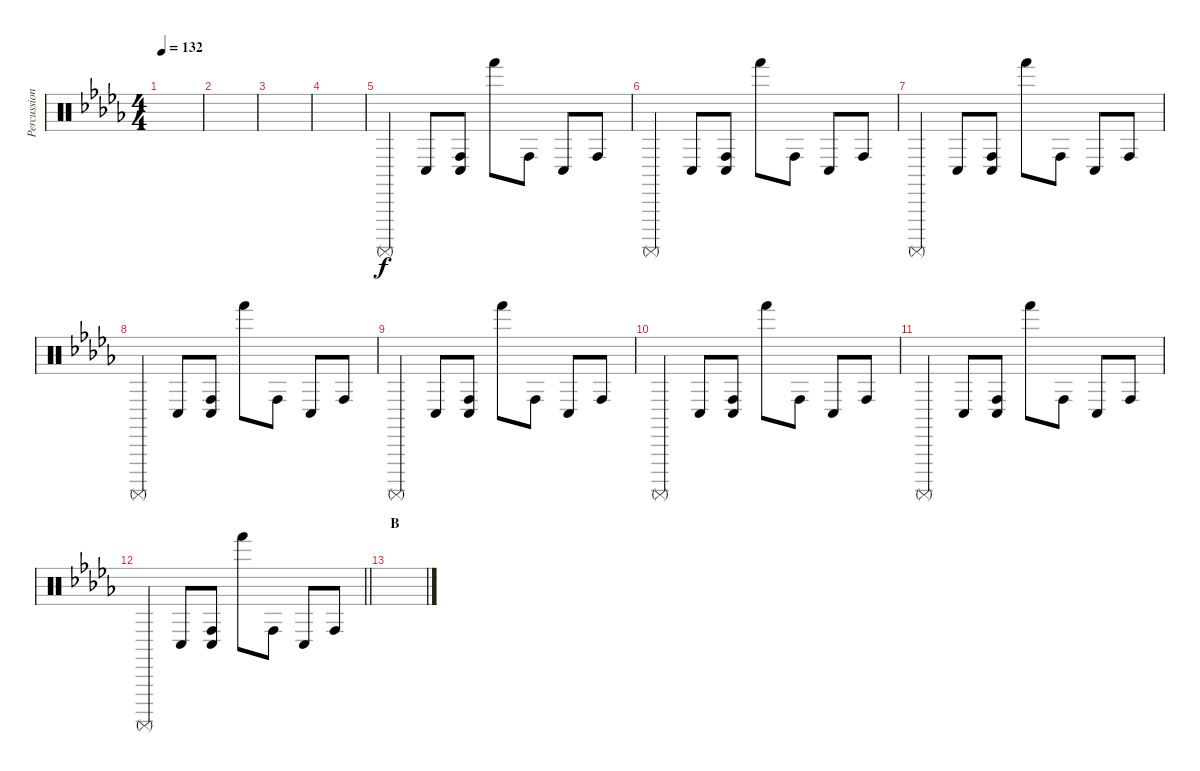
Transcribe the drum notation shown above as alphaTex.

\track ("Percussion" "Percussion") {instrument percussion}
\staff {score}
\articulation defaults
\ts (4 4)
\tempo 132
\clef neutral
\ks db
|
|
|
|
"Surdo (mute)".4 "Conga low (hit)".8 ("Conga low (hit)" "Conga high (hit)").8 "Hand (hit)".8 "Conga high (hit)".8 "Conga low (hit)".8 "Conga high (hit)".8 |
"Surdo (mute)".4 "Conga low (hit)".8 ("Conga low (hit)" "Conga high (hit)").8 "Hand (hit)".8 "Conga high (hit)".8 "Conga low (hit)".8 "Conga high (hit)".8 |
"Surdo (mute)".4 "Conga low (hit)".8 ("Conga low (hit)" "Conga high (hit)").8 "Hand (hit)".8 "Conga high (hit)".8 "Conga low (hit)".8 "Conga high (hit)".8 |
"Surdo (mute)".4 "Conga low (hit)".8 ("Conga low (hit)" "Conga high (hit)").8 "Hand (hit)".8 "Conga high (hit)".8 "Conga low (hit)".8 "Conga high (hit)".8 |
"Surdo (mute)".4 "Conga low (hit)".8 ("Conga low (hit)" "Conga high (hit)").8 "Hand (hit)".8 "Conga high (hit)".8 "Conga low (hit)".8 "Conga high (hit)".8 |
"Surdo (mute)".4 "Conga low (hit)".8 ("Conga low (hit)" "Conga high (hit)").8 "Hand (hit)".8 "Conga high (hit)".8 "Conga low (hit)".8 "Conga high (hit)".8 |
"Surdo (mute)".4 "Conga low (hit)".8 ("Conga low (hit)" "Conga high (hit)").8 "Hand (hit)".8 "Conga high (hit)".8 "Conga low (hit)".8 "Conga high (hit)".8 |
\barLineRight lightlight "Surdo (mute)".4 "Conga low (hit)".8
("Conga low (hit)" "Conga high (hit)").8 "Hand (hit)".8 "Conga high (hit)".8 "Conga low (hit)".8 "Conga high (hit)".8 |
\section ("" "B")
